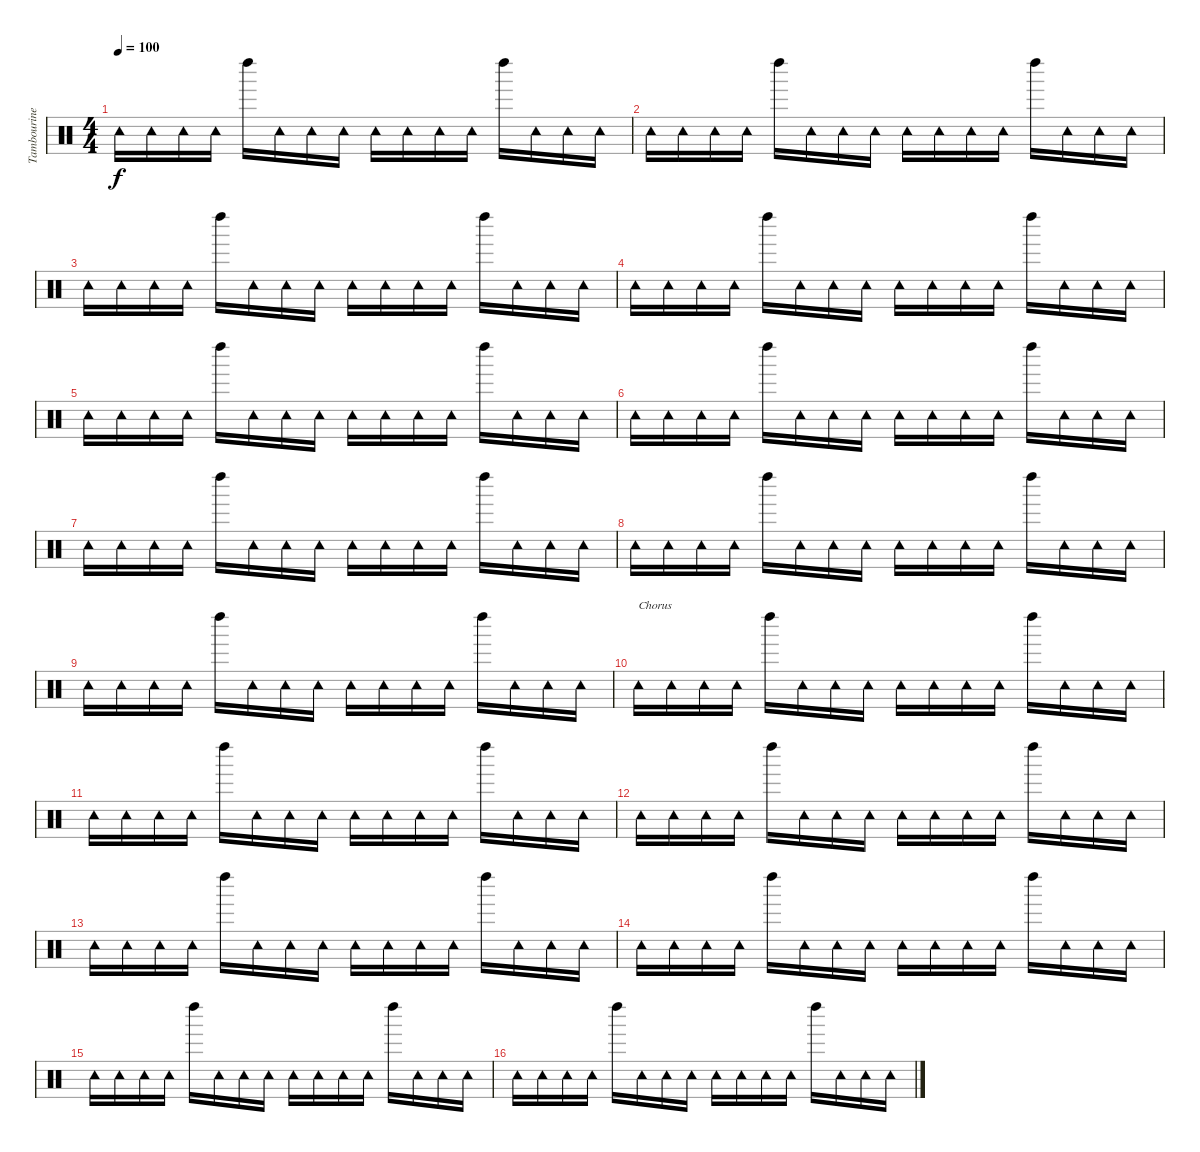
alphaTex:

\track ("Tambourine(Alan)" "Tambourine") {instrument percussion}
\staff {score}
\articulation defaults
\ts (4 4)
\tempo 100
\clef neutral
\ks c "Tambourine (hit)".16{dy f} "Tambourine (hit)".16 "Tambourine (hit)".16 "Tambourine (hit)".16 "Left Maraca (hit)".16 "Tambourine (hit)".16 "Tambourine (hit)".16 "Tambourine (hit)".16 "Tambourine (hit)".16 "Tambourine (hit)".16 "Tambourine (hit)".16 "Tambourine (hit)".16 "Left Maraca (hit)".16 "Tambourine (hit)".16 "Tambourine (hit)".16 "Tambourine (hit)".16
|
"Tambourine (hit)".16 "Tambourine (hit)".16 "Tambourine (hit)".16 "Tambourine (hit)".16 "Left Maraca (hit)".16 "Tambourine (hit)".16 "Tambourine (hit)".16 "Tambourine (hit)".16 "Tambourine (hit)".16 "Tambourine (hit)".16 "Tambourine (hit)".16 "Tambourine (hit)".16 "Left Maraca (hit)".16 "Tambourine (hit)".16 "Tambourine (hit)".16 "Tambourine (hit)".16 |
"Tambourine (hit)".16 "Tambourine (hit)".16 "Tambourine (hit)".16 "Tambourine (hit)".16 "Left Maraca (hit)".16 "Tambourine (hit)".16 "Tambourine (hit)".16 "Tambourine (hit)".16 "Tambourine (hit)".16 "Tambourine (hit)".16 "Tambourine (hit)".16 "Tambourine (hit)".16 "Left Maraca (hit)".16 "Tambourine (hit)".16 "Tambourine (hit)".16 "Tambourine (hit)".16 |
"Tambourine (hit)".16 "Tambourine (hit)".16 "Tambourine (hit)".16 "Tambourine (hit)".16 "Left Maraca (hit)".16 "Tambourine (hit)".16 "Tambourine (hit)".16 "Tambourine (hit)".16 "Tambourine (hit)".16 "Tambourine (hit)".16 "Tambourine (hit)".16 "Tambourine (hit)".16 "Left Maraca (hit)".16 "Tambourine (hit)".16 "Tambourine (hit)".16 "Tambourine (hit)".16 |
"Tambourine (hit)".16 "Tambourine (hit)".16 "Tambourine (hit)".16 "Tambourine (hit)".16 "Left Maraca (hit)".16 "Tambourine (hit)".16 "Tambourine (hit)".16 "Tambourine (hit)".16 "Tambourine (hit)".16 "Tambourine (hit)".16 "Tambourine (hit)".16 "Tambourine (hit)".16 "Left Maraca (hit)".16 "Tambourine (hit)".16 "Tambourine (hit)".16 "Tambourine (hit)".16 |
"Tambourine (hit)".16 "Tambourine (hit)".16 "Tambourine (hit)".16 "Tambourine (hit)".16 "Left Maraca (hit)".16 "Tambourine (hit)".16 "Tambourine (hit)".16 "Tambourine (hit)".16 "Tambourine (hit)".16 "Tambourine (hit)".16 "Tambourine (hit)".16 "Tambourine (hit)".16 "Left Maraca (hit)".16 "Tambourine (hit)".16 "Tambourine (hit)".16 "Tambourine (hit)".16 |
"Tambourine (hit)".16 "Tambourine (hit)".16 "Tambourine (hit)".16 "Tambourine (hit)".16 "Left Maraca (hit)".16 "Tambourine (hit)".16 "Tambourine (hit)".16 "Tambourine (hit)".16 "Tambourine (hit)".16 "Tambourine (hit)".16 "Tambourine (hit)".16 "Tambourine (hit)".16 "Left Maraca (hit)".16 "Tambourine (hit)".16 "Tambourine (hit)".16 "Tambourine (hit)".16 |
"Tambourine (hit)".16 "Tambourine (hit)".16 "Tambourine (hit)".16 "Tambourine (hit)".16 "Left Maraca (hit)".16 "Tambourine (hit)".16 "Tambourine (hit)".16 "Tambourine (hit)".16 "Tambourine (hit)".16 "Tambourine (hit)".16 "Tambourine (hit)".16 "Tambourine (hit)".16 "Left Maraca (hit)".16 "Tambourine (hit)".16 "Tambourine (hit)".16 "Tambourine (hit)".16 |
"Tambourine (hit)".16 "Tambourine (hit)".16 "Tambourine (hit)".16 "Tambourine (hit)".16 "Left Maraca (hit)".16 "Tambourine (hit)".16 "Tambourine (hit)".16 "Tambourine (hit)".16 "Tambourine (hit)".16 "Tambourine (hit)".16 "Tambourine (hit)".16 "Tambourine (hit)".16 "Left Maraca (hit)".16 "Tambourine (hit)".16 "Tambourine (hit)".16 "Tambourine (hit)".16 |
"Tambourine (hit)".16{txt "Chorus"} "Tambourine (hit)".16 "Tambourine (hit)".16 "Tambourine (hit)".16 "Left Maraca (hit)".16 "Tambourine (hit)".16 "Tambourine (hit)".16 "Tambourine (hit)".16 "Tambourine (hit)".16 "Tambourine (hit)".16 "Tambourine (hit)".16 "Tambourine (hit)".16 "Left Maraca (hit)".16 "Tambourine (hit)".16 "Tambourine (hit)".16 "Tambourine (hit)".16 |
"Tambourine (hit)".16 "Tambourine (hit)".16 "Tambourine (hit)".16 "Tambourine (hit)".16 "Left Maraca (hit)".16 "Tambourine (hit)".16 "Tambourine (hit)".16 "Tambourine (hit)".16 "Tambourine (hit)".16 "Tambourine (hit)".16 "Tambourine (hit)".16 "Tambourine (hit)".16 "Left Maraca (hit)".16 "Tambourine (hit)".16 "Tambourine (hit)".16 "Tambourine (hit)".16 |
"Tambourine (hit)".16 "Tambourine (hit)".16 "Tambourine (hit)".16 "Tambourine (hit)".16 "Left Maraca (hit)".16 "Tambourine (hit)".16 "Tambourine (hit)".16 "Tambourine (hit)".16 "Tambourine (hit)".16 "Tambourine (hit)".16 "Tambourine (hit)".16 "Tambourine (hit)".16 "Left Maraca (hit)".16 "Tambourine (hit)".16 "Tambourine (hit)".16 "Tambourine (hit)".16 |
"Tambourine (hit)".16 "Tambourine (hit)".16 "Tambourine (hit)".16 "Tambourine (hit)".16 "Left Maraca (hit)".16 "Tambourine (hit)".16 "Tambourine (hit)".16 "Tambourine (hit)".16 "Tambourine (hit)".16 "Tambourine (hit)".16 "Tambourine (hit)".16 "Tambourine (hit)".16 "Left Maraca (hit)".16 "Tambourine (hit)".16 "Tambourine (hit)".16 "Tambourine (hit)".16 |
"Tambourine (hit)".16 "Tambourine (hit)".16 "Tambourine (hit)".16 "Tambourine (hit)".16 "Left Maraca (hit)".16 "Tambourine (hit)".16 "Tambourine (hit)".16 "Tambourine (hit)".16 "Tambourine (hit)".16 "Tambourine (hit)".16 "Tambourine (hit)".16 "Tambourine (hit)".16 "Left Maraca (hit)".16 "Tambourine (hit)".16 "Tambourine (hit)".16 "Tambourine (hit)".16 |
"Tambourine (hit)".16 "Tambourine (hit)".16 "Tambourine (hit)".16 "Tambourine (hit)".16 "Left Maraca (hit)".16 "Tambourine (hit)".16 "Tambourine (hit)".16 "Tambourine (hit)".16 "Tambourine (hit)".16 "Tambourine (hit)".16 "Tambourine (hit)".16 "Tambourine (hit)".16 "Left Maraca (hit)".16 "Tambourine (hit)".16 "Tambourine (hit)".16 "Tambourine (hit)".16 |
"Tambourine (hit)".16 "Tambourine (hit)".16 "Tambourine (hit)".16 "Tambourine (hit)".16 "Left Maraca (hit)".16 "Tambourine (hit)".16 "Tambourine (hit)".16 "Tambourine (hit)".16 "Tambourine (hit)".16 "Tambourine (hit)".16 "Tambourine (hit)".16 "Tambourine (hit)".16 "Left Maraca (hit)".16 "Tambourine (hit)".16 "Tambourine (hit)".16 "Tambourine (hit)".16
